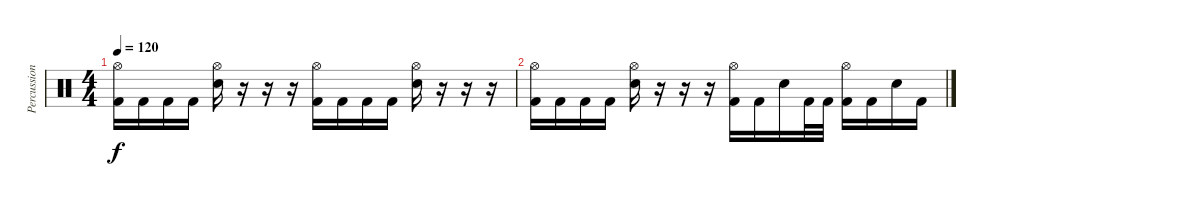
\track ("Percussion" "Percussion") {instrument percussion}
\staff {score}
\articulation defaults
\ts (4 4)
\tempo 120
\clef neutral
\ks c
("Hi-Hat (open)" "Kick (hit) 2").16{dy f} "Kick (hit) 2".16 "Kick (hit) 2".16 "Kick (hit) 2".16 ("Hi-Hat (open)" "Snare (hit) 2").16 r.16 r.16 r.16 ("Hi-Hat (open)" "Kick (hit) 2").16 "Kick (hit) 2".16 "Kick (hit) 2".16 "Kick (hit) 2".16 ("Hi-Hat (open)" "Snare (hit) 2").16 r.16 r.16 r.16 |
("Hi-Hat (open)" "Kick (hit) 2").16 "Kick (hit) 2".16 "Kick (hit) 2".16 "Kick (hit) 2".16 ("Hi-Hat (open)" "Snare (hit) 2").16 r.16 r.16 r.16 ("Hi-Hat (open)" "Kick (hit) 2").16 "Kick (hit) 2".16 "Snare (hit) 2".16 "Kick (hit) 2".32 "Kick (hit) 2".32 ("Hi-Hat (open)" "Kick (hit) 2").16 "Kick (hit) 2".16 "Snare (hit) 2".16 "Kick (hit) 2".16
